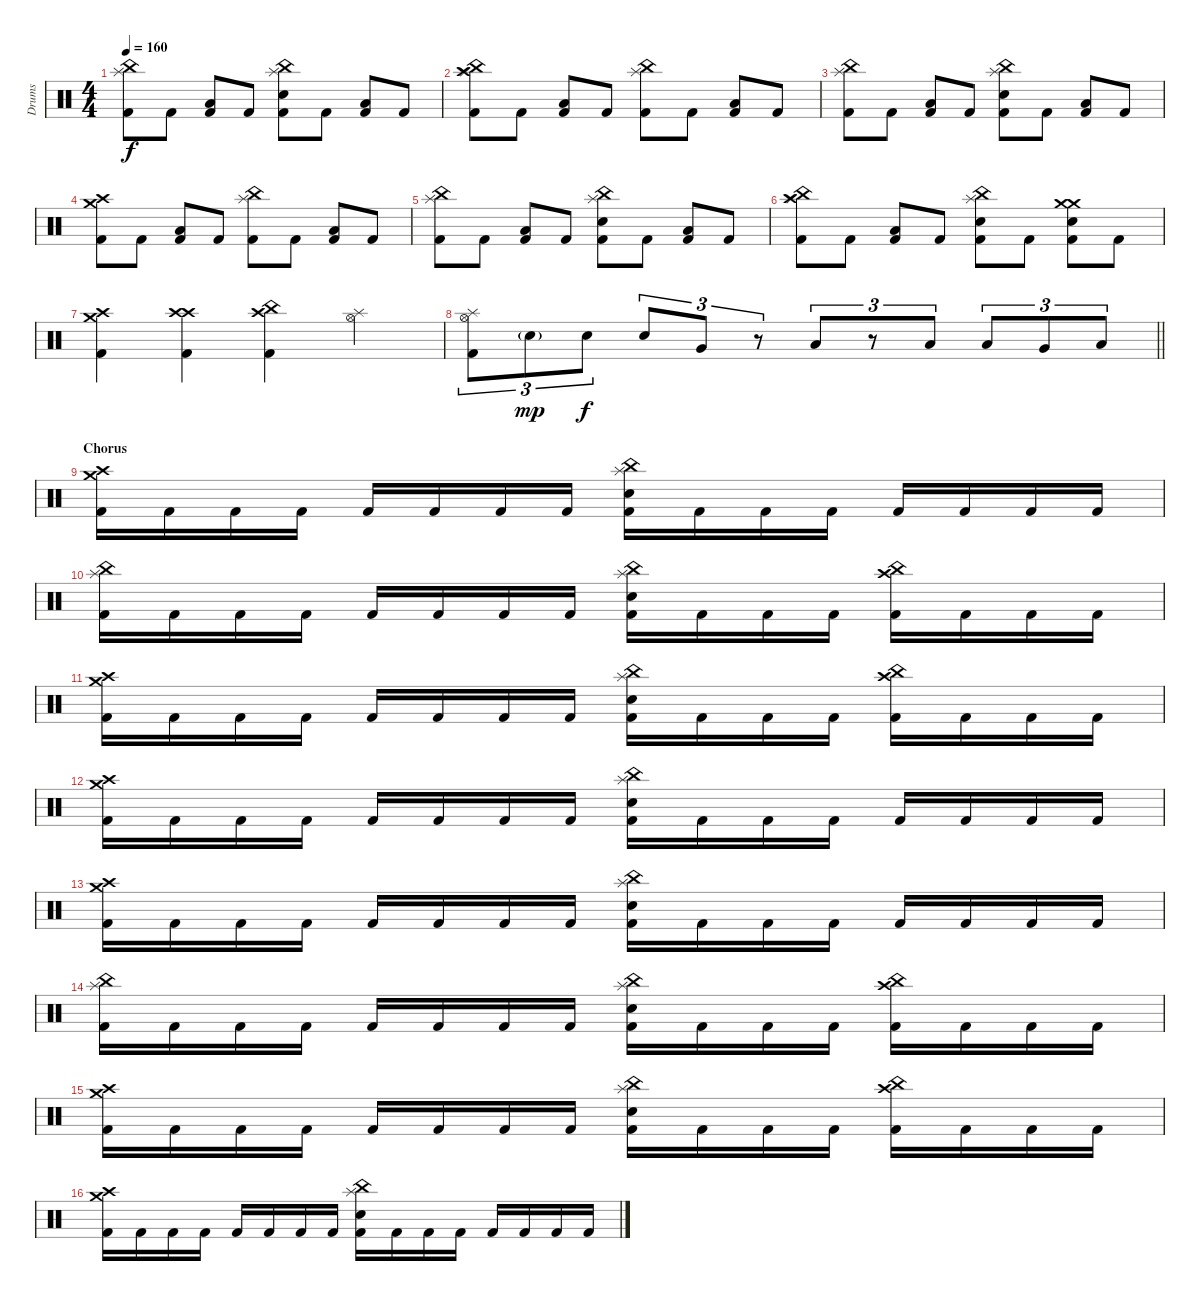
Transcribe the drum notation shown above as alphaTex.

\track ("Drums" "Drums") {instrument percussion}
\staff {score}
\articulation defaults
\ts (4 4)
\tempo 160
\clef neutral
\ks c
("China (hit)" "Splash (hit)" "Kick (hit) 2").8{dy f} "Kick (hit) 2".8 ("Low Floor Tom (hit)" "Kick (hit) 2").8 "Kick (hit) 2".8 ("China (hit)" "Splash (hit)" "Electric Snare (hit)" "Kick (hit) 2").8 "Kick (hit) 2".8 ("Low Floor Tom (hit)" "Kick (hit) 2").8 "Kick (hit) 2".8 |
("Crash high (hit)" "China (hit)" "Splash (hit)" "Kick (hit) 2").8 "Kick (hit) 2".8 ("Low Floor Tom (hit)" "Kick (hit) 2").8 "Kick (hit) 2".8 ("China (hit)" "Splash (hit)" "Kick (hit) 2").8 "Kick (hit) 2".8 ("Low Floor Tom (hit)" "Kick (hit) 2").8 "Kick (hit) 2".8 |
("China (hit)" "Splash (hit)" "Kick (hit) 2").8 "Kick (hit) 2".8 ("Low Floor Tom (hit)" "Kick (hit) 2").8 "Kick (hit) 2".8 ("China (hit)" "Splash (hit)" "Electric Snare (hit)" "Kick (hit) 2").8 "Kick (hit) 2".8 ("Low Floor Tom (hit)" "Kick (hit) 2").8 "Kick (hit) 2".8 |
("Crash high (hit)" "Crash medium (hit)" "Kick (hit) 2").8 "Kick (hit) 2".8 ("Low Floor Tom (hit)" "Kick (hit) 2").8 "Kick (hit) 2".8 ("China (hit)" "Splash (hit)" "Kick (hit) 2").8 "Kick (hit) 2".8 ("Low Floor Tom (hit)" "Kick (hit) 2").8 "Kick (hit) 2".8 |
("China (hit)" "Splash (hit)" "Kick (hit) 2").8 "Kick (hit) 2".8 ("Low Floor Tom (hit)" "Kick (hit) 2").8 "Kick (hit) 2".8 ("China (hit)" "Splash (hit)" "Electric Snare (hit)" "Kick (hit) 2").8 "Kick (hit) 2".8 ("Low Floor Tom (hit)" "Kick (hit) 2").8 "Kick (hit) 2".8 |
("Crash high (hit)" "China (hit)" "Splash (hit)" "Kick (hit) 2").8 "Kick (hit) 2".8 ("Low Floor Tom (hit)" "Kick (hit) 2").8 "Kick (hit) 2".8 ("China (hit)" "Splash (hit)" "Electric Snare (hit)" "Kick (hit) 2").8 "Kick (hit) 2".8 ("Crash medium (hit)" "Crash medium (hit)" "Electric Snare (hit)" "Kick (hit) 2").8 "Kick (hit) 2".8 |
("Crash high (hit)" "Crash medium (hit)" "Kick (hit) 2").4 ("Crash high (hit)" "Crash high (hit)" "Kick (hit) 2").4 ("Crash high (hit)" "China (hit)" "Kick (hit) 2").4 ("Hi-Hat (open)" "Splash (hit)").4 |
\barLineRight lightlight
("Hi-Hat (open)" "Splash (hit)" "Kick (hit) 2").8{tu (3 2)} "Electric Snare (hit)"{g}.8{tu (3 2) dy mp} "Electric Snare (hit)".8{tu (3 2) dy f} "Electric Snare (hit)".8{tu (3 2)} "Very Low Tom (hit)".8{tu (3 2)} r.8{tu (3 2)} "Low Tom (hit)".8{tu (3 2)} r.8{tu (3 2)} "Low Tom (hit)".8{tu (3 2)} "Low Tom (hit)".8{tu (3 2)} "Very Low Tom (hit)".8{tu (3 2)} "Low Floor Tom (hit)".8{tu (3 2)} |
\section ("" "Chorus")
("Crash high (hit)" "Crash medium (hit)" "Kick (hit) 2").16 "Kick (hit) 2".16 "Kick (hit) 2".16 "Kick (hit) 2".16 "Kick (hit) 2".16 "Kick (hit) 2".16 "Kick (hit) 2".16 "Kick (hit) 2".16 ("China (hit)" "Splash (hit)" "Electric Snare (hit)" "Kick (hit) 2").16 "Kick (hit) 2".16 "Kick (hit) 2".16 "Kick (hit) 2".16 "Kick (hit) 2".16 "Kick (hit) 2".16 "Kick (hit) 2".16 "Kick (hit) 2".16 |
("China (hit)" "Splash (hit)" "Kick (hit) 2").16 "Kick (hit) 2".16 "Kick (hit) 2".16 "Kick (hit) 2".16 "Kick (hit) 2".16 "Kick (hit) 2".16 "Kick (hit) 2".16 "Kick (hit) 2".16 ("China (hit)" "Splash (hit)" "Electric Snare (hit)" "Kick (hit) 2").16 "Kick (hit) 2".16 "Kick (hit) 2".16 "Kick (hit) 2".16 ("Crash high (hit)" "China (hit)" "Kick (hit) 2").16 "Kick (hit) 2".16 "Kick (hit) 2".16 "Kick (hit) 2".16 |
("Crash high (hit)" "Crash medium (hit)" "Kick (hit) 2").16 "Kick (hit) 2".16 "Kick (hit) 2".16 "Kick (hit) 2".16 "Kick (hit) 2".16 "Kick (hit) 2".16 "Kick (hit) 2".16 "Kick (hit) 2".16 ("China (hit)" "Splash (hit)" "Electric Snare (hit)" "Kick (hit) 2").16 "Kick (hit) 2".16 "Kick (hit) 2".16 "Kick (hit) 2".16 ("Crash high (hit)" "China (hit)" "Kick (hit) 2").16 "Kick (hit) 2".16 "Kick (hit) 2".16 "Kick (hit) 2".16 |
("Crash medium (hit)" "Crash high (hit)" "Kick (hit) 2").16 "Kick (hit) 2".16 "Kick (hit) 2".16 "Kick (hit) 2".16 "Kick (hit) 2".16 "Kick (hit) 2".16 "Kick (hit) 2".16 "Kick (hit) 2".16 ("China (hit)" "Splash (hit)" "Electric Snare (hit)" "Kick (hit) 2").16 "Kick (hit) 2".16 "Kick (hit) 2".16 "Kick (hit) 2".16 "Kick (hit) 2".16 "Kick (hit) 2".16 "Kick (hit) 2".16 "Kick (hit) 2".16 |
("Crash high (hit)" "Crash medium (hit)" "Kick (hit) 2").16 "Kick (hit) 2".16 "Kick (hit) 2".16 "Kick (hit) 2".16 "Kick (hit) 2".16 "Kick (hit) 2".16 "Kick (hit) 2".16 "Kick (hit) 2".16 ("China (hit)" "Splash (hit)" "Electric Snare (hit)" "Kick (hit) 2").16 "Kick (hit) 2".16 "Kick (hit) 2".16 "Kick (hit) 2".16 "Kick (hit) 2".16 "Kick (hit) 2".16 "Kick (hit) 2".16 "Kick (hit) 2".16 |
("China (hit)" "Splash (hit)" "Kick (hit) 2").16 "Kick (hit) 2".16 "Kick (hit) 2".16 "Kick (hit) 2".16 "Kick (hit) 2".16 "Kick (hit) 2".16 "Kick (hit) 2".16 "Kick (hit) 2".16 ("China (hit)" "Splash (hit)" "Electric Snare (hit)" "Kick (hit) 2").16 "Kick (hit) 2".16 "Kick (hit) 2".16 "Kick (hit) 2".16 ("Crash high (hit)" "China (hit)" "Kick (hit) 2").16 "Kick (hit) 2".16 "Kick (hit) 2".16 "Kick (hit) 2".16 |
("Crash high (hit)" "Crash medium (hit)" "Kick (hit) 2").16 "Kick (hit) 2".16 "Kick (hit) 2".16 "Kick (hit) 2".16 "Kick (hit) 2".16 "Kick (hit) 2".16 "Kick (hit) 2".16 "Kick (hit) 2".16 ("China (hit)" "Splash (hit)" "Electric Snare (hit)" "Kick (hit) 2").16 "Kick (hit) 2".16 "Kick (hit) 2".16 "Kick (hit) 2".16 ("Crash high (hit)" "China (hit)" "Kick (hit) 2").16 "Kick (hit) 2".16 "Kick (hit) 2".16 "Kick (hit) 2".16 |
("Crash medium (hit)" "Crash high (hit)" "Kick (hit) 2").16 "Kick (hit) 2".16 "Kick (hit) 2".16 "Kick (hit) 2".16 "Kick (hit) 2".16 "Kick (hit) 2".16 "Kick (hit) 2".16 "Kick (hit) 2".16 ("China (hit)" "Splash (hit)" "Electric Snare (hit)" "Kick (hit) 2").16 "Kick (hit) 2".16 "Kick (hit) 2".16 "Kick (hit) 2".16 "Kick (hit) 2".16 "Kick (hit) 2".16 "Kick (hit) 2".16 "Kick (hit) 2".16
